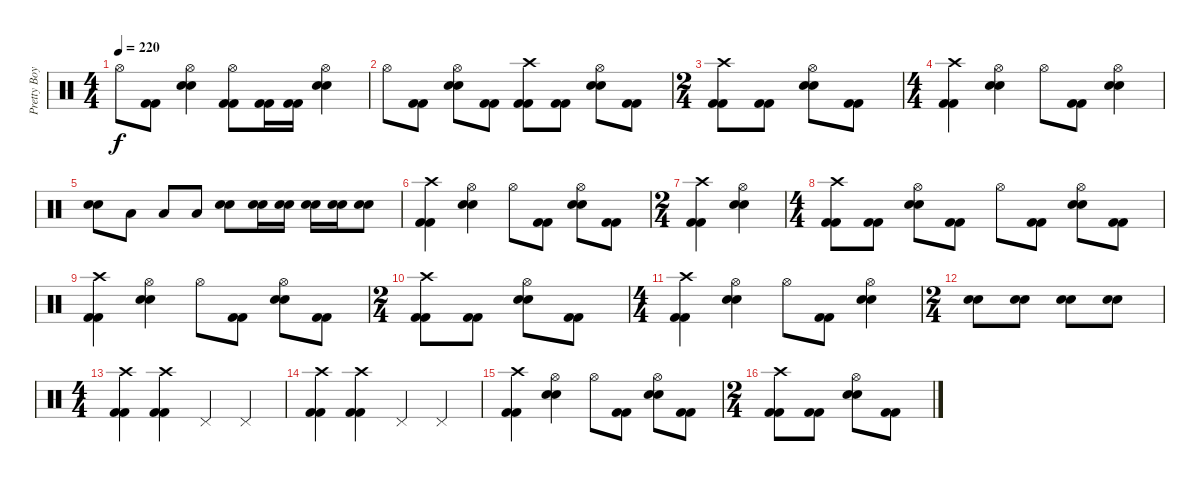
\track ("Pretty Boy Geoff (Lars Drums)" "Pretty Boy") {instrument percussion}
\staff {score}
\articulation defaults
\ts (4 4)
\tempo 220
\clef neutral
\ks c "Hi-Hat (open)".8{dy f}
("Kick (hit) 2" "Kick (hit) 2").8 ("Hi-Hat (open)" "Electric Snare (hit)" "Electric Snare (hit)").4 ("Hi-Hat (open)" "Kick (hit) 2" "Kick (hit) 2").8 ("Kick (hit) 2" "Kick (hit) 2").16 ("Kick (hit) 2" "Kick (hit) 2").16 ("Hi-Hat (open)" "Electric Snare (hit)" "Electric Snare (hit)").4 |
"Hi-Hat (open)".8 ("Kick (hit) 2" "Kick (hit) 2").8 ("Hi-Hat (open)" "Electric Snare (hit)" "Electric Snare (hit)").8 ("Kick (hit) 2" "Kick (hit) 2").8 ("Crash high (hit)" "Kick (hit) 2" "Kick (hit) 2").8 ("Kick (hit) 2" "Kick (hit) 2").8 ("Hi-Hat (open)" "Electric Snare (hit)" "Electric Snare (hit)").8 ("Kick (hit) 2" "Kick (hit) 2").8 |
\ts (2 4)
("Crash high (hit)" "Kick (hit) 2" "Kick (hit) 2").8 ("Kick (hit) 2" "Kick (hit) 2").8 ("Hi-Hat (open)" "Electric Snare (hit)" "Electric Snare (hit)").8 ("Kick (hit) 2" "Kick (hit) 2").8 |
\ts (4 4)
("Crash high (hit)" "Kick (hit) 2" "Kick (hit) 2").4 ("Hi-Hat (open)" "Electric Snare (hit)" "Electric Snare (hit)").4 "Hi-Hat (open)".8 ("Kick (hit) 2" "Kick (hit) 2").8 ("Hi-Hat (open)" "Electric Snare (hit)" "Electric Snare (hit)").4 |
("Electric Snare (hit)" "Electric Snare (hit)").8 "Low Tom (hit)".8 "Low Tom (hit)".8 "Low Tom (hit)".8 ("Electric Snare (hit)" "Electric Snare (hit)").8 ("Electric Snare (hit)" "Electric Snare (hit)").16 ("Electric Snare (hit)" "Electric Snare (hit)").16 ("Electric Snare (hit)" "Electric Snare (hit)").16 ("Electric Snare (hit)" "Electric Snare (hit)").16 ("Electric Snare (hit)" "Electric Snare (hit)").8 |
("Crash high (hit)" "Kick (hit) 2" "Kick (hit) 2").4 ("Hi-Hat (open)" "Electric Snare (hit)" "Electric Snare (hit)").4 "Hi-Hat (open)".8 ("Kick (hit) 2" "Kick (hit) 2").8 ("Hi-Hat (open)" "Electric Snare (hit)" "Electric Snare (hit)").8 ("Kick (hit) 2" "Kick (hit) 2").8 |
\ts (2 4)
("Crash high (hit)" "Kick (hit) 2" "Kick (hit) 2").4 ("Hi-Hat (open)" "Electric Snare (hit)" "Electric Snare (hit)").4 |
\ts (4 4)
("Crash high (hit)" "Kick (hit) 2" "Kick (hit) 2").8 ("Kick (hit) 2" "Kick (hit) 2").8 ("Hi-Hat (open)" "Electric Snare (hit)" "Electric Snare (hit)").8 ("Kick (hit) 2" "Kick (hit) 2").8 "Hi-Hat (open)".8 ("Kick (hit) 2" "Kick (hit) 2").8 ("Hi-Hat (open)" "Electric Snare (hit)" "Electric Snare (hit)").8 ("Kick (hit) 2" "Kick (hit) 2").8 |
("Crash high (hit)" "Kick (hit) 2" "Kick (hit) 2").4 ("Hi-Hat (open)" "Electric Snare (hit)" "Electric Snare (hit)").4 "Hi-Hat (open)".8 ("Kick (hit) 2" "Kick (hit) 2").8 ("Hi-Hat (open)" "Electric Snare (hit)" "Electric Snare (hit)").8 ("Kick (hit) 2" "Kick (hit) 2").8 |
\ts (2 4)
("Crash high (hit)" "Kick (hit) 2" "Kick (hit) 2").8 ("Kick (hit) 2" "Kick (hit) 2").8 ("Hi-Hat (open)" "Electric Snare (hit)" "Electric Snare (hit)").8 ("Kick (hit) 2" "Kick (hit) 2").8 |
\ts (4 4)
("Crash high (hit)" "Kick (hit) 2" "Kick (hit) 2").4 ("Hi-Hat (open)" "Electric Snare (hit)" "Electric Snare (hit)").4 "Hi-Hat (open)".8 ("Kick (hit) 2" "Kick (hit) 2").8 ("Hi-Hat (open)" "Electric Snare (hit)" "Electric Snare (hit)").4 |
\ts (2 4)
("Electric Snare (hit)" "Electric Snare (hit)").8 ("Electric Snare (hit)" "Electric Snare (hit)").8 ("Electric Snare (hit)" "Electric Snare (hit)").8 ("Electric Snare (hit)" "Electric Snare (hit)").8 |
\ts (4 4)
("Crash high (hit)" "Kick (hit) 2" "Kick (hit) 2").4 ("Crash high (hit)" "Kick (hit) 2" "Kick (hit) 2").4 "Pedal Hi-Hat (hit)".4 "Pedal Hi-Hat (hit)".4 |
("Crash high (hit)" "Kick (hit) 2" "Kick (hit) 2").4 ("Crash high (hit)" "Kick (hit) 2" "Kick (hit) 2").4 "Pedal Hi-Hat (hit)".4 "Pedal Hi-Hat (hit)".4 |
("Crash high (hit)" "Kick (hit) 2" "Kick (hit) 2").4 ("Hi-Hat (open)" "Electric Snare (hit)" "Electric Snare (hit)").4 "Hi-Hat (open)".8 ("Kick (hit) 2" "Kick (hit) 2").8 ("Hi-Hat (open)" "Electric Snare (hit)" "Electric Snare (hit)").8 ("Kick (hit) 2" "Kick (hit) 2").8 |
\ts (2 4)
("Crash high (hit)" "Kick (hit) 2" "Kick (hit) 2").8 ("Kick (hit) 2" "Kick (hit) 2").8 ("Hi-Hat (open)" "Electric Snare (hit)" "Electric Snare (hit)").8 ("Kick (hit) 2" "Kick (hit) 2").8
